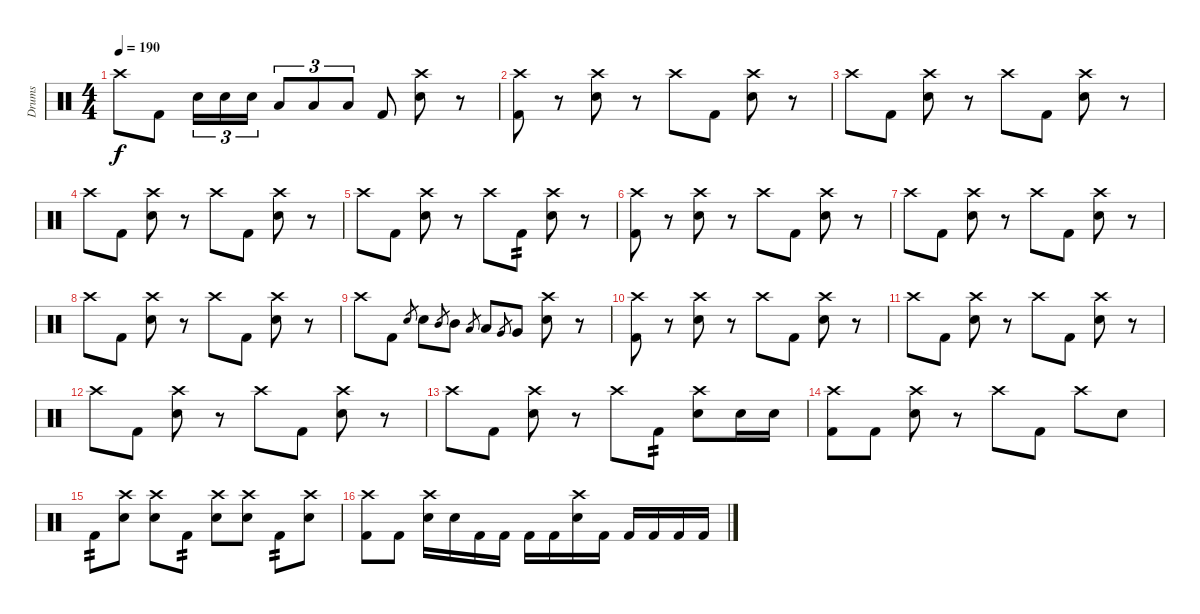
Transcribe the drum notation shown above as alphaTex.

\track ("Drums" "Drums") {instrument percussion}
\staff {score}
\articulation defaults
\ts (4 4)
\tempo 190
\clef neutral
\ks c "Crash high (hit)".8{dy f} "Kick (hit) 2".8 "Electric Snare (hit)".16{tu (3 2)} "Electric Snare (hit)".16{tu (3 2)} "Electric Snare (hit)".16{tu (3 2)} "Low Tom (hit)".8{tu (3 2)} "Low Tom (hit)".8{tu (3 2)} "Low Tom (hit)".8{tu (3 2)} "Kick (hit) 2".8
("Crash high (hit)" "Electric Snare (hit)").8 r.8 |
("Crash high (hit)" "Kick (hit) 2").8 r.8 ("Crash high (hit)" "Electric Snare (hit)").8 r.8 "Crash high (hit)".8 "Kick (hit) 2".8 ("Crash high (hit)" "Electric Snare (hit)").8 r.8 |
"Crash high (hit)".8 "Kick (hit) 2".8 ("Crash high (hit)" "Electric Snare (hit)").8 r.8 "Crash high (hit)".8 "Kick (hit) 2".8 ("Crash high (hit)" "Electric Snare (hit)").8 r.8 |
"Crash high (hit)".8 "Kick (hit) 2".8 ("Crash high (hit)" "Electric Snare (hit)").8 r.8 "Crash high (hit)".8 "Kick (hit) 2".8 ("Crash high (hit)" "Electric Snare (hit)").8 r.8 |
"Crash high (hit)".8 "Kick (hit) 2".8 ("Crash high (hit)" "Electric Snare (hit)").8 r.8 "Crash high (hit)".8 "Kick (hit) 2".8{tp 2} ("Crash high (hit)" "Electric Snare (hit)").8 r.8 |
("Crash high (hit)" "Kick (hit) 2").8 r.8 ("Crash high (hit)" "Electric Snare (hit)").8 r.8 "Crash high (hit)".8 "Kick (hit) 2".8 ("Crash high (hit)" "Electric Snare (hit)").8 r.8 |
"Crash high (hit)".8 "Kick (hit) 2".8 ("Crash high (hit)" "Electric Snare (hit)").8 r.8 "Crash high (hit)".8 "Kick (hit) 2".8 ("Crash high (hit)" "Electric Snare (hit)").8 r.8 |
"Crash high (hit)".8 "Kick (hit) 2".8 ("Crash high (hit)" "Electric Snare (hit)").8 r.8 "Crash high (hit)".8 "Kick (hit) 2".8 ("Crash high (hit)" "Electric Snare (hit)").8 r.8 |
"Crash high (hit)".8 "Kick (hit) 2".8 "Electric Snare (hit)".8{gr} "Electric Snare (hit)".8 "Mid Tom (hit)".8{gr} "Mid Tom (hit)".8 "Low Tom (hit)".8{gr} "Low Tom (hit)".8 "Very Low Tom (hit)".8{gr} "Very Low Tom (hit)".8 ("Crash high (hit)" "Electric Snare (hit)").8 r.8 |
("Crash high (hit)" "Kick (hit) 2").8 r.8 ("Crash high (hit)" "Electric Snare (hit)").8 r.8 "Crash high (hit)".8 "Kick (hit) 2".8 ("Crash high (hit)" "Electric Snare (hit)").8 r.8 |
"Crash high (hit)".8 "Kick (hit) 2".8 ("Crash high (hit)" "Electric Snare (hit)").8 r.8 "Crash high (hit)".8 "Kick (hit) 2".8 ("Crash high (hit)" "Electric Snare (hit)").8 r.8 |
"Crash high (hit)".8 "Kick (hit) 2".8 ("Crash high (hit)" "Electric Snare (hit)").8 r.8 "Crash high (hit)".8 "Kick (hit) 2".8 ("Crash high (hit)" "Electric Snare (hit)").8 r.8 |
"Crash high (hit)".8 "Kick (hit) 2".8 ("Crash high (hit)" "Electric Snare (hit)").8 r.8 "Crash high (hit)".8 "Kick (hit) 2".8{tp 2} ("Crash high (hit)" "Electric Snare (hit)").8 "Electric Snare (hit)".16 "Electric Snare (hit)".16 |
("Crash high (hit)" "Kick (hit) 2").8 "Kick (hit) 2".8 ("Crash high (hit)" "Electric Snare (hit)").8 r.8 "Crash high (hit)".8 "Kick (hit) 2".8 "Crash high (hit)".8 "Electric Snare (hit)".8 |
"Kick (hit) 2".8{tp 2} ("Crash high (hit)" "Electric Snare (hit)").8 ("Crash high (hit)" "Electric Snare (hit)").8 "Kick (hit) 2".8{tp 2} ("Crash high (hit)" "Electric Snare (hit)").8 ("Crash high (hit)" "Electric Snare (hit)").8 "Kick (hit) 2".8{tp 2} ("Crash high (hit)" "Electric Snare (hit)").8 |
("Crash high (hit)" "Kick (hit) 2").8 "Kick (hit) 2".8 ("Crash high (hit)" "Electric Snare (hit)").16 "Electric Snare (hit)".16 "Kick (hit) 2".16 "Kick (hit) 2".16 "Kick (hit) 2".16 "Kick (hit) 2".16 ("Crash high (hit)" "Electric Snare (hit)").16 "Kick (hit) 2".16 "Kick (hit) 2".16 "Kick (hit) 2".16 "Kick (hit) 2".16 "Kick (hit) 2".16
